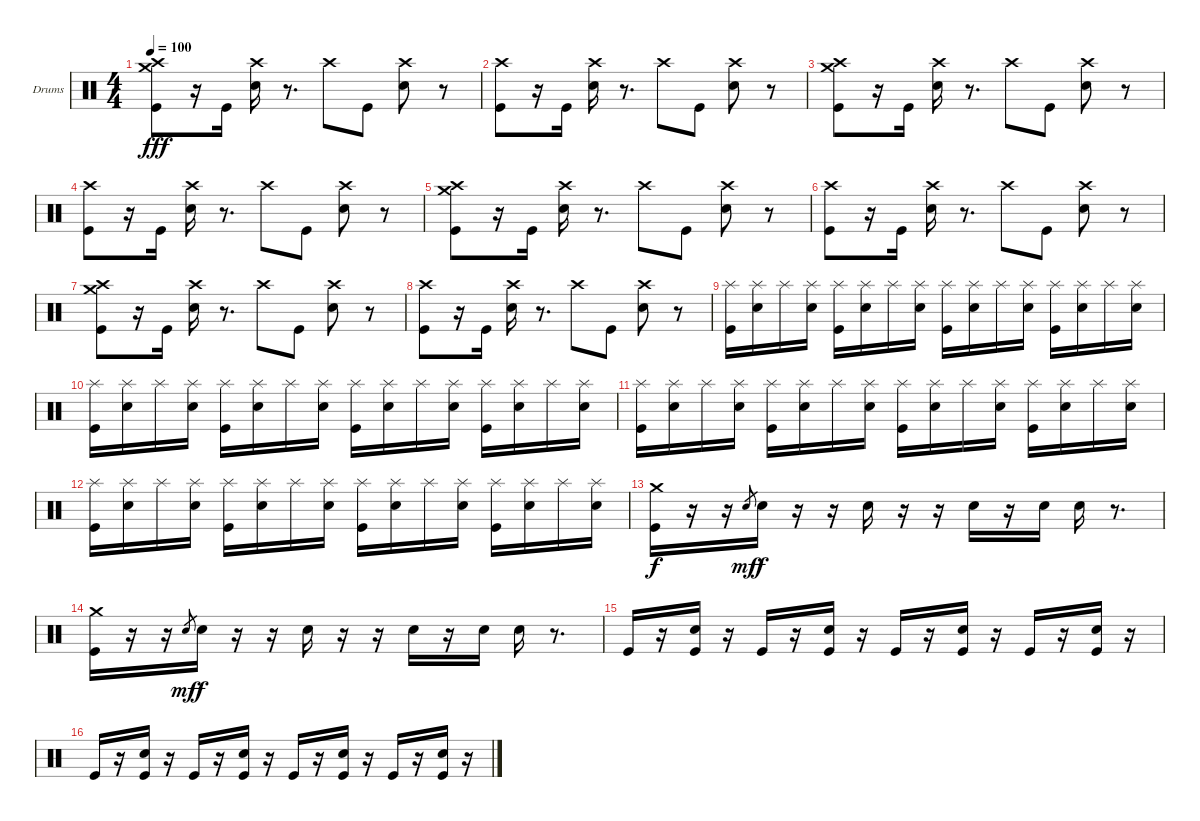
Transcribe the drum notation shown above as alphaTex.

\bracketExtendMode groupsimilarinstruments
\firstSystemTrackNameOrientation horizontal
\otherSystemsTrackNameOrientation horizontal
\track ("Lars Ulrich (Drum)" "Drums") {instrument percussion}
\staff {score}
\articulation defaults
\ts (4 4)
\tempo 100
\clef neutral
\scale
0.333333
\ks c
("Crash medium (hit)" "Crash high (hit)" "Kick (hit)").8{dy fff} r.16 "Kick (hit)".16 ("Crash high (hit)" "Snare (hit) 2").16 r.8{d} "Crash high (hit)".8 "Kick (hit)".8 ("Crash high (hit)" "Snare (hit) 2").8 r.8 |
\scale
0.333333 ("Crash high (hit)" "Kick (hit)").8 r.16 "Kick (hit)".16 ("Crash high (hit)" "Snare (hit) 2").16 r.8{d} "Crash high (hit)".8 "Kick (hit)".8 ("Crash high (hit)" "Snare (hit) 2").8 r.8 |
\scale
0.333333 ("Crash medium (hit)" "Crash high (hit)" "Kick (hit)").8 r.16 "Kick (hit)".16 ("Crash high (hit)" "Snare (hit) 2").16 r.8{d} "Crash high (hit)".8 "Kick (hit)".8 ("Crash high (hit)" "Snare (hit) 2").8 r.8 |
\scale
0.333333 ("Crash high (hit)" "Kick (hit)").8 r.16 "Kick (hit)".16 ("Crash high (hit)" "Snare (hit) 2").16 r.8{d} "Crash high (hit)".8 "Kick (hit)".8 ("Crash high (hit)" "Snare (hit) 2").8 r.8 |
\scale
0.333333 ("Crash medium (hit)" "Crash high (hit)" "Kick (hit)").8 r.16 "Kick (hit)".16 ("Crash high (hit)" "Snare (hit) 2").16 r.8{d} "Crash high (hit)".8 "Kick (hit)".8 ("Crash high (hit)" "Snare (hit) 2").8 r.8 |
\scale
0.333333 ("Crash high (hit)" "Kick (hit)").8 r.16 "Kick (hit)".16 ("Crash high (hit)" "Snare (hit) 2").16 r.8{d} "Crash high (hit)".8 "Kick (hit)".8 ("Crash high (hit)" "Snare (hit) 2").8 r.8 |
\scale
0.333333 ("Crash medium (hit)" "Crash high (hit)" "Kick (hit)").8 r.16 "Kick (hit)".16 ("Crash high (hit)" "Snare (hit) 2").16 r.8{d} "Crash high (hit)".8 "Kick (hit)".8 ("Crash high (hit)" "Snare (hit) 2").8 r.8 |
\scale
0.333333 ("Crash high (hit)" "Kick (hit)").8 r.16 "Kick (hit)".16 ("Crash high (hit)" "Snare (hit) 2").16 r.8{d} "Crash high (hit)".8 "Kick (hit)".8 ("Crash high (hit)" "Snare (hit) 2").8 r.8 |
\scale
0.333333 ("Splash (hit)" "Kick (hit)").16 ("Splash (hit)" "Snare (hit) 2").16 "Splash (hit)".16 ("Splash (hit)" "Snare (hit) 2").16 ("Splash (hit)" "Kick (hit)").16 ("Splash (hit)" "Snare (hit) 2").16 "Splash (hit)".16 ("Splash (hit)" "Snare (hit) 2").16 ("Splash (hit)" "Kick (hit)").16 ("Splash (hit)" "Snare (hit) 2").16 "Splash (hit)".16 ("Splash (hit)" "Snare (hit) 2").16 ("Splash (hit)" "Kick (hit)").16 ("Splash (hit)" "Snare (hit) 2").16 "Splash (hit)".16 ("Splash (hit)" "Snare (hit) 2").16 |
\scale
0.333333 ("Splash (hit)" "Kick (hit)").16 ("Splash (hit)" "Snare (hit) 2").16 "Splash (hit)".16 ("Splash (hit)" "Snare (hit) 2").16 ("Splash (hit)" "Kick (hit)").16 ("Splash (hit)" "Snare (hit) 2").16 "Splash (hit)".16 ("Splash (hit)" "Snare (hit) 2").16 ("Splash (hit)" "Kick (hit)").16 ("Splash (hit)" "Snare (hit) 2").16 "Splash (hit)".16 ("Splash (hit)" "Snare (hit) 2").16 ("Splash (hit)" "Kick (hit)").16 ("Splash (hit)" "Snare (hit) 2").16 "Splash (hit)".16 ("Splash (hit)" "Snare (hit) 2").16 |
\scale
0.333333 ("Splash (hit)" "Kick (hit)").16 ("Splash (hit)" "Snare (hit) 2").16 "Splash (hit)".16 ("Splash (hit)" "Snare (hit) 2").16 ("Splash (hit)" "Kick (hit)").16 ("Splash (hit)" "Snare (hit) 2").16 "Splash (hit)".16 ("Splash (hit)" "Snare (hit) 2").16 ("Splash (hit)" "Kick (hit)").16 ("Splash (hit)" "Snare (hit) 2").16 "Splash (hit)".16 ("Splash (hit)" "Snare (hit) 2").16 ("Splash (hit)" "Kick (hit)").16 ("Splash (hit)" "Snare (hit) 2").16 "Splash (hit)".16 ("Splash (hit)" "Snare (hit) 2").16 |
\scale
0.333333 ("Splash (hit)" "Kick (hit)").16 ("Splash (hit)" "Snare (hit) 2").16 "Splash (hit)".16 ("Splash (hit)" "Snare (hit) 2").16 ("Splash (hit)" "Kick (hit)").16 ("Splash (hit)" "Snare (hit) 2").16 "Splash (hit)".16 ("Splash (hit)" "Snare (hit) 2").16 ("Splash (hit)" "Kick (hit)").16 ("Splash (hit)" "Snare (hit) 2").16 "Splash (hit)".16 ("Splash (hit)" "Snare (hit) 2").16 ("Splash (hit)" "Kick (hit)").16 ("Splash (hit)" "Snare (hit) 2").16 "Splash (hit)".16 ("Splash (hit)" "Snare (hit) 2").16 |
\scale
0.333333 ("Crash medium (hit)" "Kick (hit)").16{dy f} r.16 r.16 "Snare (hit) 2".8{gr dy mf} "Snare (hit) 2".16{dy f} r.16 r.16 "Snare (hit) 2".16 r.16 r.16 "Snare (hit) 2".16 r.16 "Snare (hit) 2".16 "Snare (hit) 2".16 r.8{d} |
\scale
0.333333 ("Crash medium (hit)" "Kick (hit)").16 r.16 r.16 "Snare (hit) 2".8{gr dy mf} "Snare (hit) 2".16{dy f} r.16 r.16 "Snare (hit) 2".16 r.16 r.16 "Snare (hit) 2".16 r.16 "Snare (hit) 2".16 "Snare (hit) 2".16 r.8{d} |
"Kick (hit)".16 r.16 ("Snare (hit) 2" "Kick (hit)").16 r.16 "Kick (hit)".16 r.16 ("Snare (hit) 2" "Kick (hit)").16 r.16 "Kick (hit)".16 r.16 ("Snare (hit) 2" "Kick (hit)").16 r.16 "Kick (hit)".16 r.16 ("Snare (hit) 2" "Kick (hit)").16 r.16 |
"Kick (hit)".16 r.16 ("Snare (hit) 2" "Kick (hit)").16 r.16 "Kick (hit)".16 r.16 ("Snare (hit) 2" "Kick (hit)").16 r.16 "Kick (hit)".16 r.16 ("Snare (hit) 2" "Kick (hit)").16 r.16 "Kick (hit)".16 r.16 ("Snare (hit) 2" "Kick (hit)").16 r.16
